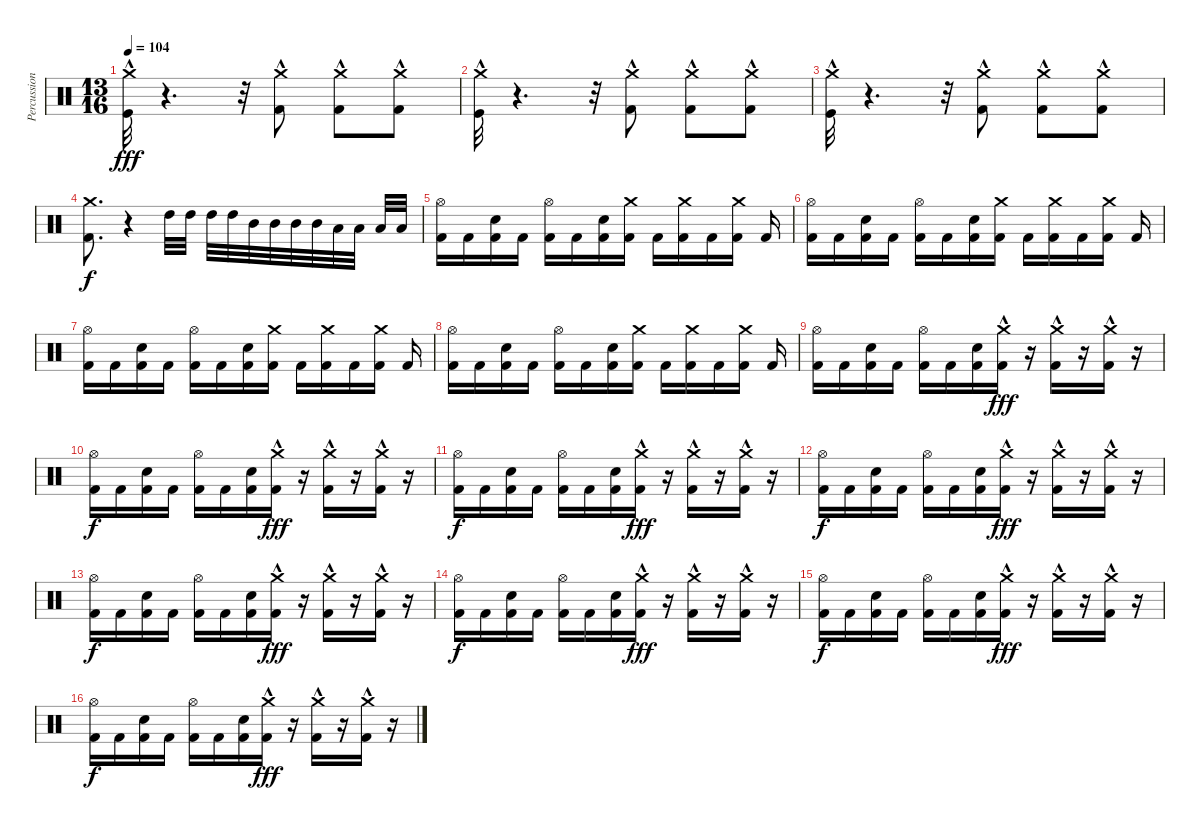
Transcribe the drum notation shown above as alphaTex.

\track ("Percussion" "Percussion") {instrument percussion}
\staff {score}
\articulation defaults
\ts (13 16)
\tempo 104
\clef neutral
\ks c
("Crash medium (hit)"{hac} "Kick (hit)"{hac}).32{dy fff} r.4{d} r.32 ("Crash medium (hit)"{hac} "Kick (hit) 2"{hac}).8 ("Crash medium (hit)"{hac} "Kick (hit) 2"{hac}).8 ("Crash medium (hit)"{hac} "Kick (hit) 2"{hac}).8 |
("Crash medium (hit)"{hac} "Kick (hit)"{hac}).32 r.4{d} r.32 ("Crash medium (hit)"{hac} "Kick (hit) 2"{hac}).8 ("Crash medium (hit)"{hac} "Kick (hit) 2"{hac}).8 ("Crash medium (hit)"{hac} "Kick (hit) 2"{hac}).8 |
("Crash medium (hit)"{hac} "Kick (hit)"{hac}).32 r.4{d} r.32 ("Crash medium (hit)"{hac} "Kick (hit) 2"{hac}).8 ("Crash medium (hit)"{hac} "Kick (hit) 2"{hac}).8 ("Crash medium (hit)"{hac} "Kick (hit) 2"{hac}).8 |
("Crash medium (hit)" "Kick (hit) 2").8{d dy f} r.4 "High Tom (hit)".32 "High Tom (hit)".32 "High Tom (hit)".32 "High Tom (hit)".32 "Mid Tom (hit)".32 "Mid Tom (hit)".32 "Mid Tom (hit)".32 "Mid Tom (hit)".32 "Low Tom (hit)".32 "Low Tom (hit)".32 "Low Tom (hit)".32 "Low Tom (hit)".32 |
("Hi-Hat (open)" "Kick (hit) 2").16 "Kick (hit) 2".16 ("Snare (hit) 2" "Kick (hit) 2").16 "Kick (hit) 2".16 ("Hi-Hat (open)" "Kick (hit) 2").16 "Kick (hit) 2".16 ("Snare (hit) 2" "Kick (hit) 2").16 ("Crash medium (hit)" "Kick (hit) 2").16 "Kick (hit) 2".16 ("Crash medium (hit)" "Kick (hit) 2").16 "Kick (hit) 2".16 ("Crash medium (hit)" "Kick (hit) 2").16 "Kick (hit) 2".16 |
("Hi-Hat (open)" "Kick (hit) 2").16 "Kick (hit) 2".16 ("Snare (hit) 2" "Kick (hit) 2").16 "Kick (hit) 2".16 ("Hi-Hat (open)" "Kick (hit) 2").16 "Kick (hit) 2".16 ("Snare (hit) 2" "Kick (hit) 2").16 ("Crash medium (hit)" "Kick (hit) 2").16 "Kick (hit) 2".16 ("Crash medium (hit)" "Kick (hit) 2").16 "Kick (hit) 2".16 ("Crash medium (hit)" "Kick (hit) 2").16 "Kick (hit) 2".16 |
("Hi-Hat (open)" "Kick (hit) 2").16 "Kick (hit) 2".16 ("Snare (hit) 2" "Kick (hit) 2").16 "Kick (hit) 2".16 ("Hi-Hat (open)" "Kick (hit) 2").16 "Kick (hit) 2".16 ("Snare (hit) 2" "Kick (hit) 2").16 ("Crash medium (hit)" "Kick (hit) 2").16 "Kick (hit) 2".16 ("Crash medium (hit)" "Kick (hit) 2").16 "Kick (hit) 2".16 ("Crash medium (hit)" "Kick (hit) 2").16 "Kick (hit) 2".16 |
("Hi-Hat (open)" "Kick (hit) 2").16 "Kick (hit) 2".16 ("Snare (hit) 2" "Kick (hit) 2").16 "Kick (hit) 2".16 ("Hi-Hat (open)" "Kick (hit) 2").16 "Kick (hit) 2".16 ("Snare (hit) 2" "Kick (hit) 2").16 ("Crash medium (hit)" "Kick (hit) 2").16 "Kick (hit) 2".16 ("Crash medium (hit)" "Kick (hit) 2").16 "Kick (hit) 2".16 ("Crash medium (hit)" "Kick (hit) 2").16 "Kick (hit) 2".16 |
("Hi-Hat (open)" "Kick (hit) 2").16 "Kick (hit) 2".16 ("Snare (hit) 2" "Kick (hit) 2").16 "Kick (hit) 2".16 ("Hi-Hat (open)" "Kick (hit) 2").16 "Kick (hit) 2".16 ("Snare (hit) 2" "Kick (hit) 2").16 ("Crash medium (hit)"{hac} "Kick (hit) 2"{hac}).16{dy fff} r.16 ("Crash medium (hit)"{hac} "Kick (hit) 2"{hac}).16 r.16 ("Crash medium (hit)"{hac} "Kick (hit) 2"{hac}).16 r.16 |
("Hi-Hat (open)" "Kick (hit) 2").16{dy f} "Kick (hit) 2".16 ("Snare (hit) 2" "Kick (hit) 2").16 "Kick (hit) 2".16 ("Hi-Hat (open)" "Kick (hit) 2").16 "Kick (hit) 2".16 ("Snare (hit) 2" "Kick (hit) 2").16 ("Crash medium (hit)"{hac} "Kick (hit) 2"{hac}).16{dy fff} r.16 ("Crash medium (hit)"{hac} "Kick (hit) 2"{hac}).16 r.16 ("Crash medium (hit)"{hac} "Kick (hit) 2"{hac}).16 r.16 |
("Hi-Hat (open)" "Kick (hit) 2").16{dy f} "Kick (hit) 2".16 ("Snare (hit) 2" "Kick (hit) 2").16 "Kick (hit) 2".16 ("Hi-Hat (open)" "Kick (hit) 2").16 "Kick (hit) 2".16 ("Snare (hit) 2" "Kick (hit) 2").16 ("Crash medium (hit)"{hac} "Kick (hit) 2"{hac}).16{dy fff} r.16 ("Crash medium (hit)"{hac} "Kick (hit) 2"{hac}).16 r.16 ("Crash medium (hit)"{hac} "Kick (hit) 2"{hac}).16 r.16 |
("Hi-Hat (open)" "Kick (hit) 2").16{dy f} "Kick (hit) 2".16 ("Snare (hit) 2" "Kick (hit) 2").16 "Kick (hit) 2".16 ("Hi-Hat (open)" "Kick (hit) 2").16 "Kick (hit) 2".16 ("Snare (hit) 2" "Kick (hit) 2").16 ("Crash medium (hit)"{hac} "Kick (hit) 2"{hac}).16{dy fff} r.16 ("Crash medium (hit)"{hac} "Kick (hit) 2"{hac}).16 r.16 ("Crash medium (hit)"{hac} "Kick (hit) 2"{hac}).16 r.16 |
("Hi-Hat (open)" "Kick (hit) 2").16{dy f} "Kick (hit) 2".16 ("Snare (hit) 2" "Kick (hit) 2").16 "Kick (hit) 2".16 ("Hi-Hat (open)" "Kick (hit) 2").16 "Kick (hit) 2".16 ("Snare (hit) 2" "Kick (hit) 2").16 ("Crash medium (hit)"{hac} "Kick (hit) 2"{hac}).16{dy fff} r.16 ("Crash medium (hit)"{hac} "Kick (hit) 2"{hac}).16 r.16 ("Crash medium (hit)"{hac} "Kick (hit) 2"{hac}).16 r.16 |
("Hi-Hat (open)" "Kick (hit) 2").16{dy f} "Kick (hit) 2".16 ("Snare (hit) 2" "Kick (hit) 2").16 "Kick (hit) 2".16 ("Hi-Hat (open)" "Kick (hit) 2").16 "Kick (hit) 2".16 ("Snare (hit) 2" "Kick (hit) 2").16 ("Crash medium (hit)"{hac} "Kick (hit) 2"{hac}).16{dy fff} r.16 ("Crash medium (hit)"{hac} "Kick (hit) 2"{hac}).16 r.16 ("Crash medium (hit)"{hac} "Kick (hit) 2"{hac}).16 r.16 |
("Hi-Hat (open)" "Kick (hit) 2").16{dy f} "Kick (hit) 2".16 ("Snare (hit) 2" "Kick (hit) 2").16 "Kick (hit) 2".16 ("Hi-Hat (open)" "Kick (hit) 2").16 "Kick (hit) 2".16 ("Snare (hit) 2" "Kick (hit) 2").16 ("Crash medium (hit)"{hac} "Kick (hit) 2"{hac}).16{dy fff} r.16 ("Crash medium (hit)"{hac} "Kick (hit) 2"{hac}).16 r.16 ("Crash medium (hit)"{hac} "Kick (hit) 2"{hac}).16 r.16 |
("Hi-Hat (open)" "Kick (hit) 2").16{dy f} "Kick (hit) 2".16 ("Snare (hit) 2" "Kick (hit) 2").16 "Kick (hit) 2".16 ("Hi-Hat (open)" "Kick (hit) 2").16 "Kick (hit) 2".16 ("Snare (hit) 2" "Kick (hit) 2").16 ("Crash medium (hit)"{hac} "Kick (hit) 2"{hac}).16{dy fff} r.16 ("Crash medium (hit)"{hac} "Kick (hit) 2"{hac}).16 r.16 ("Crash medium (hit)"{hac} "Kick (hit) 2"{hac}).16 r.16
